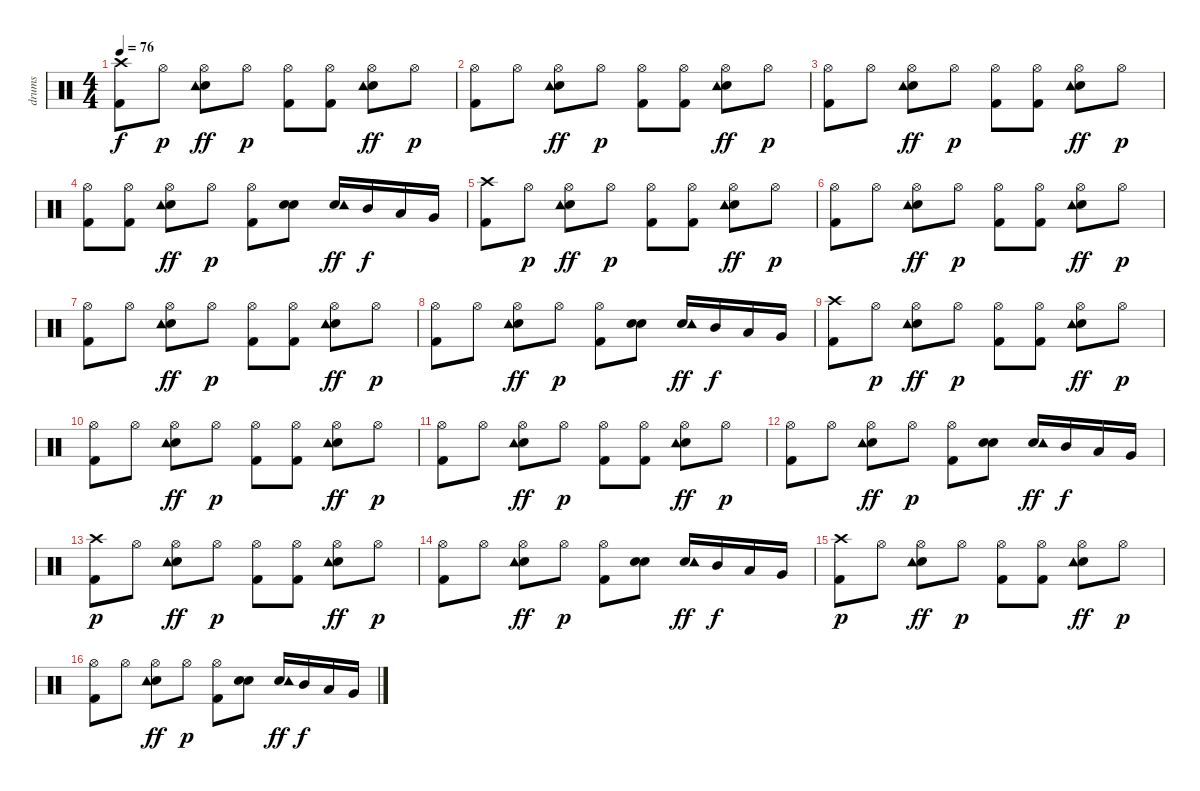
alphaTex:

\track ("drums" "drums") {instrument percussion}
\staff {score}
\articulation defaults
\ts (4 4)
\tempo 76
\clef neutral
\ks c
("Crash high (hit)" "Kick (hit) 2").8{dy f} "Hi-Hat (open)".8{dy p} ("Hi-Hat (open)" "Snare (hit) 2" "Tambourine (hit)").8{dy ff} "Hi-Hat (open)".8{dy p} ("Hi-Hat (open)" "Kick (hit) 2").8 ("Hi-Hat (open)" "Kick (hit) 2").8 ("Hi-Hat (open)" "Snare (hit) 2" "Tambourine (hit)").8{dy ff} "Hi-Hat (open)".8{dy p} |
("Hi-Hat (open)" "Kick (hit) 2").8 "Hi-Hat (open)".8 ("Hi-Hat (open)" "Snare (hit) 2" "Tambourine (hit)").8{dy ff} "Hi-Hat (open)".8{dy p} ("Hi-Hat (open)" "Kick (hit) 2").8 ("Hi-Hat (open)" "Kick (hit) 2").8 ("Hi-Hat (open)" "Snare (hit) 2" "Tambourine (hit)").8{dy ff} "Hi-Hat (open)".8{dy p} |
("Hi-Hat (open)" "Kick (hit) 2").8 "Hi-Hat (open)".8 ("Hi-Hat (open)" "Snare (hit) 2" "Tambourine (hit)").8{dy ff} "Hi-Hat (open)".8{dy p} ("Hi-Hat (open)" "Kick (hit) 2").8 ("Hi-Hat (open)" "Kick (hit) 2").8 ("Hi-Hat (open)" "Snare (hit) 2" "Tambourine (hit)").8{dy ff} "Hi-Hat (open)".8{dy p} |
("Hi-Hat (open)" "Kick (hit) 2").8 ("Hi-Hat (open)" "Kick (hit) 2").8 ("Hi-Hat (open)" "Snare (hit) 2" "Tambourine (hit)").8{dy ff} "Hi-Hat (open)".8{dy p} ("Hi-Hat (open)" "Kick (hit) 2").8 ("Snare (hit) 2" "Snare (hit) 2").8 ("Snare (hit) 2" "Tambourine (hit)").16{dy ff} "Mid Tom (hit)".16{dy f} "Low Tom (hit)".16 "Very Low Tom (hit)".16 |
("Crash high (hit)" "Kick (hit) 2").8 "Hi-Hat (open)".8{dy p} ("Hi-Hat (open)" "Snare (hit) 2" "Tambourine (hit)").8{dy ff} "Hi-Hat (open)".8{dy p} ("Hi-Hat (open)" "Kick (hit) 2").8 ("Hi-Hat (open)" "Kick (hit) 2").8 ("Hi-Hat (open)" "Snare (hit) 2" "Tambourine (hit)").8{dy ff} "Hi-Hat (open)".8{dy p} |
("Hi-Hat (open)" "Kick (hit) 2").8 "Hi-Hat (open)".8 ("Hi-Hat (open)" "Snare (hit) 2" "Tambourine (hit)").8{dy ff} "Hi-Hat (open)".8{dy p} ("Hi-Hat (open)" "Kick (hit) 2").8 ("Hi-Hat (open)" "Kick (hit) 2").8 ("Hi-Hat (open)" "Snare (hit) 2" "Tambourine (hit)").8{dy ff} "Hi-Hat (open)".8{dy p} |
("Hi-Hat (open)" "Kick (hit) 2").8 "Hi-Hat (open)".8 ("Hi-Hat (open)" "Snare (hit) 2" "Tambourine (hit)").8{dy ff} "Hi-Hat (open)".8{dy p} ("Hi-Hat (open)" "Kick (hit) 2").8 ("Hi-Hat (open)" "Kick (hit) 2").8 ("Hi-Hat (open)" "Snare (hit) 2" "Tambourine (hit)").8{dy ff} "Hi-Hat (open)".8{dy p} |
("Hi-Hat (open)" "Kick (hit) 2").8 "Hi-Hat (open)".8 ("Hi-Hat (open)" "Snare (hit) 2" "Tambourine (hit)").8{dy ff} "Hi-Hat (open)".8{dy p} ("Hi-Hat (open)" "Kick (hit) 2").8 ("Snare (hit) 2" "Snare (hit) 2").8 ("Snare (hit) 2" "Tambourine (hit)").16{dy ff} "Mid Tom (hit)".16{dy f} "Low Tom (hit)".16 "Very Low Tom (hit)".16 |
("Crash high (hit)" "Kick (hit) 2").8 "Hi-Hat (open)".8{dy p} ("Hi-Hat (open)" "Snare (hit) 2" "Tambourine (hit)").8{dy ff} "Hi-Hat (open)".8{dy p} ("Hi-Hat (open)" "Kick (hit) 2").8 ("Hi-Hat (open)" "Kick (hit) 2").8 ("Hi-Hat (open)" "Snare (hit) 2" "Tambourine (hit)").8{dy ff} "Hi-Hat (open)".8{dy p} |
("Hi-Hat (open)" "Kick (hit) 2").8 "Hi-Hat (open)".8 ("Hi-Hat (open)" "Snare (hit) 2" "Tambourine (hit)").8{dy ff} "Hi-Hat (open)".8{dy p} ("Hi-Hat (open)" "Kick (hit) 2").8 ("Hi-Hat (open)" "Kick (hit) 2").8 ("Hi-Hat (open)" "Snare (hit) 2" "Tambourine (hit)").8{dy ff} "Hi-Hat (open)".8{dy p} |
("Hi-Hat (open)" "Kick (hit) 2").8 "Hi-Hat (open)".8 ("Hi-Hat (open)" "Snare (hit) 2" "Tambourine (hit)").8{dy ff} "Hi-Hat (open)".8{dy p} ("Hi-Hat (open)" "Kick (hit) 2").8 ("Hi-Hat (open)" "Kick (hit) 2").8 ("Hi-Hat (open)" "Snare (hit) 2" "Tambourine (hit)").8{dy ff} "Hi-Hat (open)".8{dy p} |
("Hi-Hat (open)" "Kick (hit) 2").8 "Hi-Hat (open)".8 ("Hi-Hat (open)" "Snare (hit) 2" "Tambourine (hit)").8{dy ff} "Hi-Hat (open)".8{dy p} ("Hi-Hat (open)" "Kick (hit) 2").8 ("Snare (hit) 2" "Snare (hit) 2").8 ("Snare (hit) 2" "Tambourine (hit)").16{dy ff} "Mid Tom (hit)".16{dy f} "Low Tom (hit)".16 "Very Low Tom (hit)".16 |
("Crash high (hit)" "Kick (hit) 2").8{dy p} "Hi-Hat (open)".8 ("Hi-Hat (open)" "Snare (hit) 2" "Tambourine (hit)").8{dy ff} "Hi-Hat (open)".8{dy p} ("Hi-Hat (open)" "Kick (hit) 2").8 ("Hi-Hat (open)" "Kick (hit) 2").8 ("Hi-Hat (open)" "Snare (hit) 2" "Tambourine (hit)").8{dy ff} "Hi-Hat (open)".8{dy p} |
("Hi-Hat (open)" "Kick (hit) 2").8 "Hi-Hat (open)".8 ("Hi-Hat (open)" "Snare (hit) 2" "Tambourine (hit)").8{dy ff} "Hi-Hat (open)".8{dy p} ("Hi-Hat (open)" "Kick (hit) 2").8 ("Snare (hit) 2" "Snare (hit) 2").8 ("Snare (hit) 2" "Tambourine (hit)").16{dy ff} "Mid Tom (hit)".16{dy f} "Low Tom (hit)".16 "Very Low Tom (hit)".16 |
("Crash high (hit)" "Kick (hit) 2").8{dy p} "Hi-Hat (open)".8 ("Hi-Hat (open)" "Snare (hit) 2" "Tambourine (hit)").8{dy ff} "Hi-Hat (open)".8{dy p} ("Hi-Hat (open)" "Kick (hit) 2").8 ("Hi-Hat (open)" "Kick (hit) 2").8 ("Hi-Hat (open)" "Snare (hit) 2" "Tambourine (hit)").8{dy ff} "Hi-Hat (open)".8{dy p} |
("Hi-Hat (open)" "Kick (hit) 2").8 "Hi-Hat (open)".8 ("Hi-Hat (open)" "Snare (hit) 2" "Tambourine (hit)").8{dy ff} "Hi-Hat (open)".8{dy p} ("Hi-Hat (open)" "Kick (hit) 2").8 ("Snare (hit) 2" "Snare (hit) 2").8 ("Snare (hit) 2" "Tambourine (hit)").16{dy ff} "Mid Tom (hit)".16{dy f} "Low Tom (hit)".16 "Very Low Tom (hit)".16
